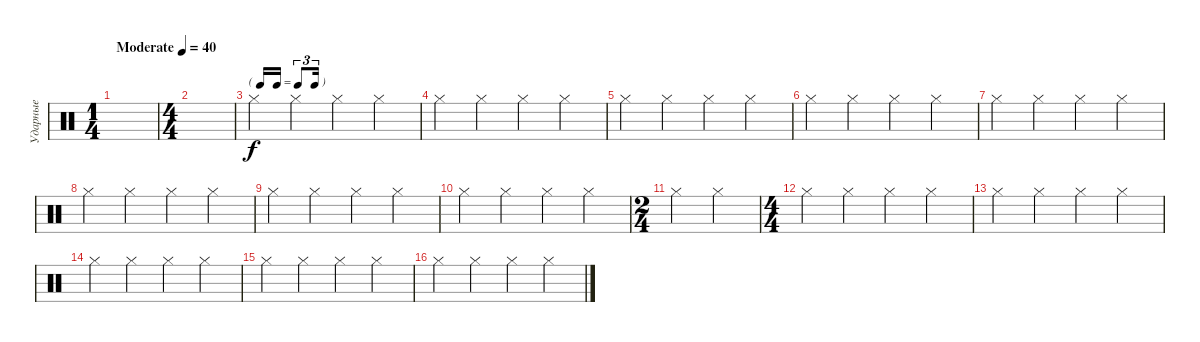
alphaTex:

\track ("Ударные" "Ударные") {instrument percussion}
\staff {score}
\articulation defaults
\ts (1 4)
\tempo (40 "Moderate")
\tempo 90
\tempo (40 "Moderate")
\clef neutral
\ks c
|
\ts (4 4)
|
\tf triplet16th "Hi-Hat (closed)".4 "Hi-Hat (closed)".4 "Hi-Hat (closed)".4 "Hi-Hat (closed)".4
|
"Hi-Hat (closed)".4 "Hi-Hat (closed)".4 "Hi-Hat (closed)".4 "Hi-Hat (closed)".4 |
"Hi-Hat (closed)".4 "Hi-Hat (closed)".4 "Hi-Hat (closed)".4 "Hi-Hat (closed)".4 |
"Hi-Hat (closed)".4 "Hi-Hat (closed)".4 "Hi-Hat (closed)".4 "Hi-Hat (closed)".4 |
"Hi-Hat (closed)".4 "Hi-Hat (closed)".4 "Hi-Hat (closed)".4 "Hi-Hat (closed)".4 |
"Hi-Hat (closed)".4 "Hi-Hat (closed)".4 "Hi-Hat (closed)".4 "Hi-Hat (closed)".4 |
"Hi-Hat (closed)".4 "Hi-Hat (closed)".4 "Hi-Hat (closed)".4 "Hi-Hat (closed)".4 |
"Hi-Hat (closed)".4 "Hi-Hat (closed)".4 "Hi-Hat (closed)".4 "Hi-Hat (closed)".4 |
\ts (2 4)
"Hi-Hat (closed)".4 "Hi-Hat (closed)".4 |
\ts (4 4)
"Hi-Hat (closed)".4 "Hi-Hat (closed)".4 "Hi-Hat (closed)".4 "Hi-Hat (closed)".4 |
"Hi-Hat (closed)".4 "Hi-Hat (closed)".4 "Hi-Hat (closed)".4 "Hi-Hat (closed)".4 |
"Hi-Hat (closed)".4 "Hi-Hat (closed)".4 "Hi-Hat (closed)".4 "Hi-Hat (closed)".4 |
"Hi-Hat (closed)".4 "Hi-Hat (closed)".4 "Hi-Hat (closed)".4 "Hi-Hat (closed)".4 |
"Hi-Hat (closed)".4 "Hi-Hat (closed)".4 "Hi-Hat (closed)".4 "Hi-Hat (closed)".4
